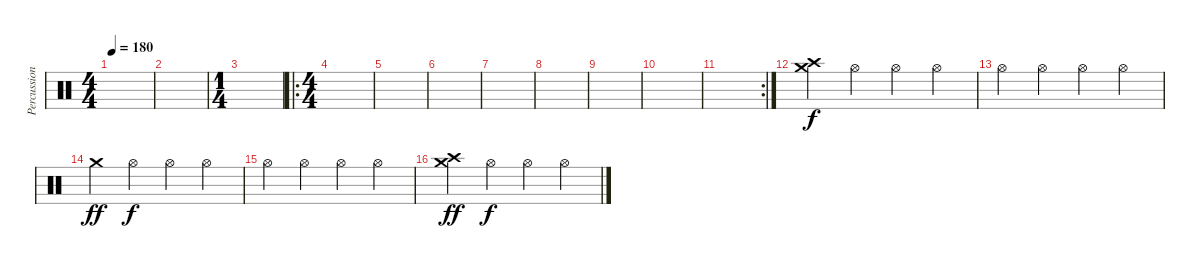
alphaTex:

\track ("Percussion (Francisco Izquierdo)" "Percussion") {instrument percussion}
\staff {score}
\articulation defaults
\ts (4 4)
\tempo 180
\clef neutral
\ks c
|
|
\ts (1 4)
|
\ro
\ts (4 4)
|
|
|
|
|
|
|
\rc 2
|
("Crash high (hit)" "Crash medium (hit)").4 "Hi-Hat (open)".4{dy f} "Hi-Hat (open)".4 "Hi-Hat (open)".4 |
"Hi-Hat (open)".4 "Hi-Hat (open)".4 "Hi-Hat (open)".4 "Hi-Hat (open)".4 |
"Crash medium (hit)".4{dy ff} "Hi-Hat (open)".4{dy f} "Hi-Hat (open)".4 "Hi-Hat (open)".4 |
"Hi-Hat (open)".4 "Hi-Hat (open)".4 "Hi-Hat (open)".4 "Hi-Hat (open)".4 |
("Crash high (hit)" "Crash medium (hit)").4{dy ff} "Hi-Hat (open)".4{dy f} "Hi-Hat (open)".4 "Hi-Hat (open)".4
